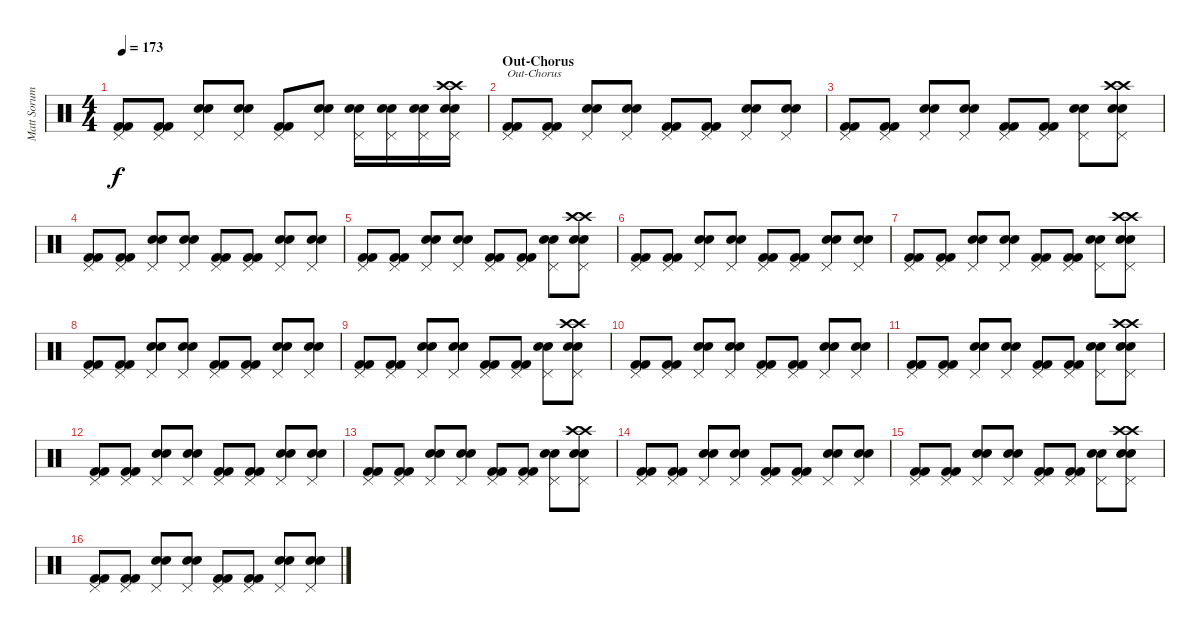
\track ("Matt Sorum" "Matt Sorum") {instrument percussion}
\staff {score}
\articulation defaults
\ts (4 4)
\tempo 173
\clef neutral
\ks c
("Pedal Hi-Hat (hit)" "Kick (hit) 2" "Kick (hit) 2").8{dy f} ("Pedal Hi-Hat (hit)" "Kick (hit) 2" "Kick (hit) 2").8 ("Pedal Hi-Hat (hit)" "Snare (hit) 2" "Snare (hit) 2").8 ("Pedal Hi-Hat (hit)" "Snare (hit) 2" "Snare (hit) 2").8 ("Pedal Hi-Hat (hit)" "Kick (hit) 2" "Kick (hit) 2").8 ("Pedal Hi-Hat (hit)" "Snare (hit) 2" "Snare (hit) 2").8 ("Pedal Hi-Hat (hit)" "Snare (hit) 2" "Snare (hit) 2").16 ("Pedal Hi-Hat (hit)" "Snare (hit) 2" "Snare (hit) 2").16 ("Pedal Hi-Hat (hit)" "Snare (hit) 2" "Snare (hit) 2").16 ("Crash high (hit)" "Crash high (hit)" "Pedal Hi-Hat (hit)" "Snare (hit) 2" "Snare (hit) 2").16 |
\section ("" "Out-Chorus")
("Pedal Hi-Hat (hit)" "Kick (hit) 2" "Kick (hit) 2").8{txt "Out-Chorus"} ("Pedal Hi-Hat (hit)" "Kick (hit) 2" "Kick (hit) 2").8 ("Pedal Hi-Hat (hit)" "Snare (hit) 2" "Snare (hit) 2").8 ("Pedal Hi-Hat (hit)" "Snare (hit) 2" "Snare (hit) 2").8 ("Pedal Hi-Hat (hit)" "Kick (hit) 2" "Kick (hit) 2").8 ("Pedal Hi-Hat (hit)" "Kick (hit) 2" "Kick (hit) 2").8 ("Pedal Hi-Hat (hit)" "Snare (hit) 2" "Snare (hit) 2").8 ("Pedal Hi-Hat (hit)" "Snare (hit) 2" "Snare (hit) 2").8 |
("Pedal Hi-Hat (hit)" "Kick (hit) 2" "Kick (hit) 2").8 ("Pedal Hi-Hat (hit)" "Kick (hit) 2" "Kick (hit) 2").8 ("Pedal Hi-Hat (hit)" "Snare (hit) 2" "Snare (hit) 2").8 ("Pedal Hi-Hat (hit)" "Snare (hit) 2" "Snare (hit) 2").8 ("Pedal Hi-Hat (hit)" "Kick (hit) 2" "Kick (hit) 2").8 ("Pedal Hi-Hat (hit)" "Kick (hit) 2" "Kick (hit) 2").8 ("Pedal Hi-Hat (hit)" "Snare (hit) 2" "Snare (hit) 2").8 ("Crash high (hit)" "Crash high (hit)" "Pedal Hi-Hat (hit)" "Snare (hit) 2" "Snare (hit) 2").8 |
("Pedal Hi-Hat (hit)" "Kick (hit) 2" "Kick (hit) 2").8 ("Pedal Hi-Hat (hit)" "Kick (hit) 2" "Kick (hit) 2").8 ("Pedal Hi-Hat (hit)" "Snare (hit) 2" "Snare (hit) 2").8 ("Pedal Hi-Hat (hit)" "Snare (hit) 2" "Snare (hit) 2").8 ("Pedal Hi-Hat (hit)" "Kick (hit) 2" "Kick (hit) 2").8 ("Pedal Hi-Hat (hit)" "Kick (hit) 2" "Kick (hit) 2").8 ("Pedal Hi-Hat (hit)" "Snare (hit) 2" "Snare (hit) 2").8 ("Pedal Hi-Hat (hit)" "Snare (hit) 2" "Snare (hit) 2").8 |
("Pedal Hi-Hat (hit)" "Kick (hit) 2" "Kick (hit) 2").8 ("Pedal Hi-Hat (hit)" "Kick (hit) 2" "Kick (hit) 2").8 ("Pedal Hi-Hat (hit)" "Snare (hit) 2" "Snare (hit) 2").8 ("Pedal Hi-Hat (hit)" "Snare (hit) 2" "Snare (hit) 2").8 ("Pedal Hi-Hat (hit)" "Kick (hit) 2" "Kick (hit) 2").8 ("Pedal Hi-Hat (hit)" "Kick (hit) 2" "Kick (hit) 2").8 ("Pedal Hi-Hat (hit)" "Snare (hit) 2" "Snare (hit) 2").8 ("Crash high (hit)" "Crash high (hit)" "Pedal Hi-Hat (hit)" "Snare (hit) 2" "Snare (hit) 2").8 |
("Pedal Hi-Hat (hit)" "Kick (hit) 2" "Kick (hit) 2").8 ("Pedal Hi-Hat (hit)" "Kick (hit) 2" "Kick (hit) 2").8 ("Pedal Hi-Hat (hit)" "Snare (hit) 2" "Snare (hit) 2").8 ("Pedal Hi-Hat (hit)" "Snare (hit) 2" "Snare (hit) 2").8 ("Pedal Hi-Hat (hit)" "Kick (hit) 2" "Kick (hit) 2").8 ("Pedal Hi-Hat (hit)" "Kick (hit) 2" "Kick (hit) 2").8 ("Pedal Hi-Hat (hit)" "Snare (hit) 2" "Snare (hit) 2").8 ("Pedal Hi-Hat (hit)" "Snare (hit) 2" "Snare (hit) 2").8 |
("Pedal Hi-Hat (hit)" "Kick (hit) 2" "Kick (hit) 2").8 ("Pedal Hi-Hat (hit)" "Kick (hit) 2" "Kick (hit) 2").8 ("Pedal Hi-Hat (hit)" "Snare (hit) 2" "Snare (hit) 2").8 ("Pedal Hi-Hat (hit)" "Snare (hit) 2" "Snare (hit) 2").8 ("Pedal Hi-Hat (hit)" "Kick (hit) 2" "Kick (hit) 2").8 ("Pedal Hi-Hat (hit)" "Kick (hit) 2" "Kick (hit) 2").8 ("Pedal Hi-Hat (hit)" "Snare (hit) 2" "Snare (hit) 2").8 ("Crash high (hit)" "Crash high (hit)" "Pedal Hi-Hat (hit)" "Snare (hit) 2" "Snare (hit) 2").8 |
("Pedal Hi-Hat (hit)" "Kick (hit) 2" "Kick (hit) 2").8 ("Pedal Hi-Hat (hit)" "Kick (hit) 2" "Kick (hit) 2").8 ("Pedal Hi-Hat (hit)" "Snare (hit) 2" "Snare (hit) 2").8 ("Pedal Hi-Hat (hit)" "Snare (hit) 2" "Snare (hit) 2").8 ("Pedal Hi-Hat (hit)" "Kick (hit) 2" "Kick (hit) 2").8 ("Pedal Hi-Hat (hit)" "Kick (hit) 2" "Kick (hit) 2").8 ("Pedal Hi-Hat (hit)" "Snare (hit) 2" "Snare (hit) 2").8 ("Pedal Hi-Hat (hit)" "Snare (hit) 2" "Snare (hit) 2").8 |
("Pedal Hi-Hat (hit)" "Kick (hit) 2" "Kick (hit) 2").8 ("Pedal Hi-Hat (hit)" "Kick (hit) 2" "Kick (hit) 2").8 ("Pedal Hi-Hat (hit)" "Snare (hit) 2" "Snare (hit) 2").8 ("Pedal Hi-Hat (hit)" "Snare (hit) 2" "Snare (hit) 2").8 ("Pedal Hi-Hat (hit)" "Kick (hit) 2" "Kick (hit) 2").8 ("Pedal Hi-Hat (hit)" "Kick (hit) 2" "Kick (hit) 2").8 ("Pedal Hi-Hat (hit)" "Snare (hit) 2" "Snare (hit) 2").8 ("Crash high (hit)" "Crash high (hit)" "Pedal Hi-Hat (hit)" "Snare (hit) 2" "Snare (hit) 2").8 |
("Pedal Hi-Hat (hit)" "Kick (hit) 2" "Kick (hit) 2").8 ("Pedal Hi-Hat (hit)" "Kick (hit) 2" "Kick (hit) 2").8 ("Pedal Hi-Hat (hit)" "Snare (hit) 2" "Snare (hit) 2").8 ("Pedal Hi-Hat (hit)" "Snare (hit) 2" "Snare (hit) 2").8 ("Pedal Hi-Hat (hit)" "Kick (hit) 2" "Kick (hit) 2").8 ("Pedal Hi-Hat (hit)" "Kick (hit) 2" "Kick (hit) 2").8 ("Pedal Hi-Hat (hit)" "Snare (hit) 2" "Snare (hit) 2").8 ("Pedal Hi-Hat (hit)" "Snare (hit) 2" "Snare (hit) 2").8 |
("Pedal Hi-Hat (hit)" "Kick (hit) 2" "Kick (hit) 2").8 ("Pedal Hi-Hat (hit)" "Kick (hit) 2" "Kick (hit) 2").8 ("Pedal Hi-Hat (hit)" "Snare (hit) 2" "Snare (hit) 2").8 ("Pedal Hi-Hat (hit)" "Snare (hit) 2" "Snare (hit) 2").8 ("Pedal Hi-Hat (hit)" "Kick (hit) 2" "Kick (hit) 2").8 ("Pedal Hi-Hat (hit)" "Kick (hit) 2" "Kick (hit) 2").8 ("Pedal Hi-Hat (hit)" "Snare (hit) 2" "Snare (hit) 2").8 ("Crash high (hit)" "Crash high (hit)" "Pedal Hi-Hat (hit)" "Snare (hit) 2" "Snare (hit) 2").8 |
("Pedal Hi-Hat (hit)" "Kick (hit) 2" "Kick (hit) 2").8 ("Pedal Hi-Hat (hit)" "Kick (hit) 2" "Kick (hit) 2").8 ("Pedal Hi-Hat (hit)" "Snare (hit) 2" "Snare (hit) 2").8 ("Pedal Hi-Hat (hit)" "Snare (hit) 2" "Snare (hit) 2").8 ("Pedal Hi-Hat (hit)" "Kick (hit) 2" "Kick (hit) 2").8 ("Pedal Hi-Hat (hit)" "Kick (hit) 2" "Kick (hit) 2").8 ("Pedal Hi-Hat (hit)" "Snare (hit) 2" "Snare (hit) 2").8 ("Pedal Hi-Hat (hit)" "Snare (hit) 2" "Snare (hit) 2").8 |
("Pedal Hi-Hat (hit)" "Kick (hit) 2" "Kick (hit) 2").8 ("Pedal Hi-Hat (hit)" "Kick (hit) 2" "Kick (hit) 2").8 ("Pedal Hi-Hat (hit)" "Snare (hit) 2" "Snare (hit) 2").8 ("Pedal Hi-Hat (hit)" "Snare (hit) 2" "Snare (hit) 2").8 ("Pedal Hi-Hat (hit)" "Kick (hit) 2" "Kick (hit) 2").8 ("Pedal Hi-Hat (hit)" "Kick (hit) 2" "Kick (hit) 2").8 ("Pedal Hi-Hat (hit)" "Snare (hit) 2" "Snare (hit) 2").8 ("Crash high (hit)" "Crash high (hit)" "Pedal Hi-Hat (hit)" "Snare (hit) 2" "Snare (hit) 2").8 |
("Pedal Hi-Hat (hit)" "Kick (hit) 2" "Kick (hit) 2").8 ("Pedal Hi-Hat (hit)" "Kick (hit) 2" "Kick (hit) 2").8 ("Pedal Hi-Hat (hit)" "Snare (hit) 2" "Snare (hit) 2").8 ("Pedal Hi-Hat (hit)" "Snare (hit) 2" "Snare (hit) 2").8 ("Pedal Hi-Hat (hit)" "Kick (hit) 2" "Kick (hit) 2").8 ("Pedal Hi-Hat (hit)" "Kick (hit) 2" "Kick (hit) 2").8 ("Pedal Hi-Hat (hit)" "Snare (hit) 2" "Snare (hit) 2").8 ("Pedal Hi-Hat (hit)" "Snare (hit) 2" "Snare (hit) 2").8 |
("Pedal Hi-Hat (hit)" "Kick (hit) 2" "Kick (hit) 2").8 ("Pedal Hi-Hat (hit)" "Kick (hit) 2" "Kick (hit) 2").8 ("Pedal Hi-Hat (hit)" "Snare (hit) 2" "Snare (hit) 2").8 ("Pedal Hi-Hat (hit)" "Snare (hit) 2" "Snare (hit) 2").8 ("Pedal Hi-Hat (hit)" "Kick (hit) 2" "Kick (hit) 2").8 ("Pedal Hi-Hat (hit)" "Kick (hit) 2" "Kick (hit) 2").8 ("Pedal Hi-Hat (hit)" "Snare (hit) 2" "Snare (hit) 2").8 ("Crash high (hit)" "Crash high (hit)" "Pedal Hi-Hat (hit)" "Snare (hit) 2" "Snare (hit) 2").8 |
("Pedal Hi-Hat (hit)" "Kick (hit) 2" "Kick (hit) 2").8 ("Pedal Hi-Hat (hit)" "Kick (hit) 2" "Kick (hit) 2").8 ("Pedal Hi-Hat (hit)" "Snare (hit) 2" "Snare (hit) 2").8 ("Pedal Hi-Hat (hit)" "Snare (hit) 2" "Snare (hit) 2").8 ("Pedal Hi-Hat (hit)" "Kick (hit) 2" "Kick (hit) 2").8 ("Pedal Hi-Hat (hit)" "Kick (hit) 2" "Kick (hit) 2").8 ("Pedal Hi-Hat (hit)" "Snare (hit) 2" "Snare (hit) 2").8 ("Pedal Hi-Hat (hit)" "Snare (hit) 2" "Snare (hit) 2").8
